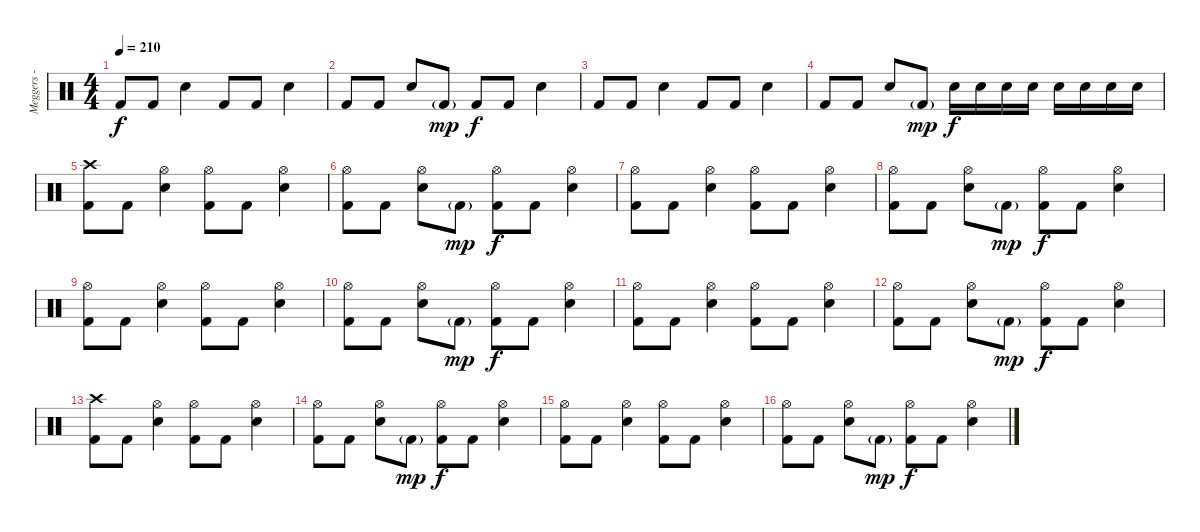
\track ("Meggers - Drums" "Meggers - ") {instrument percussion}
\staff {score}
\articulation defaults
\ts (4 4)
\tempo 210
\clef neutral
\ks c "Kick (hit) 2".8{dy f} "Kick (hit) 2".8 "Electric Snare (hit)".4 "Kick (hit) 2".8 "Kick (hit) 2".8 "Electric Snare (hit)".4
|
"Kick (hit) 2".8 "Kick (hit) 2".8 "Electric Snare (hit)".8 "Kick (hit) 2"{g}.8{dy mp} "Kick (hit) 2".8{dy f} "Kick (hit) 2".8 "Electric Snare (hit)".4 |
"Kick (hit) 2".8 "Kick (hit) 2".8 "Electric Snare (hit)".4 "Kick (hit) 2".8 "Kick (hit) 2".8 "Electric Snare (hit)".4 |
"Kick (hit) 2".8 "Kick (hit) 2".8 "Electric Snare (hit)".8 "Kick (hit) 2"{g}.8{dy mp} "Electric Snare (hit)".16{dy f} "Electric Snare (hit)".16 "Electric Snare (hit)".16 "Electric Snare (hit)".16 "Electric Snare (hit)".16 "Electric Snare (hit)".16 "Electric Snare (hit)".16 "Electric Snare (hit)".16 |
("Crash high (hit)" "Kick (hit) 2").8 "Kick (hit) 2".8 ("Hi-Hat (open)" "Electric Snare (hit)").4 ("Hi-Hat (open)" "Kick (hit) 2").8 "Kick (hit) 2".8 ("Hi-Hat (open)" "Electric Snare (hit)").4 |
("Hi-Hat (open)" "Kick (hit) 2").8 "Kick (hit) 2".8 ("Hi-Hat (open)" "Electric Snare (hit)").8 "Kick (hit) 2"{g}.8{dy mp} ("Hi-Hat (open)" "Kick (hit) 2").8{dy f} "Kick (hit) 2".8 ("Hi-Hat (open)" "Electric Snare (hit)").4 |
("Hi-Hat (open)" "Kick (hit) 2").8 "Kick (hit) 2".8 ("Hi-Hat (open)" "Electric Snare (hit)").4 ("Hi-Hat (open)" "Kick (hit) 2").8 "Kick (hit) 2".8 ("Hi-Hat (open)" "Electric Snare (hit)").4 |
("Hi-Hat (open)" "Kick (hit) 2").8 "Kick (hit) 2".8 ("Hi-Hat (open)" "Electric Snare (hit)").8 "Kick (hit) 2"{g}.8{dy mp} ("Hi-Hat (open)" "Kick (hit) 2").8{dy f} "Kick (hit) 2".8 ("Hi-Hat (open)" "Electric Snare (hit)").4 |
("Hi-Hat (open)" "Kick (hit) 2").8 "Kick (hit) 2".8 ("Hi-Hat (open)" "Electric Snare (hit)").4 ("Hi-Hat (open)" "Kick (hit) 2").8 "Kick (hit) 2".8 ("Hi-Hat (open)" "Electric Snare (hit)").4 |
("Hi-Hat (open)" "Kick (hit) 2").8 "Kick (hit) 2".8 ("Hi-Hat (open)" "Electric Snare (hit)").8 "Kick (hit) 2"{g}.8{dy mp} ("Hi-Hat (open)" "Kick (hit) 2").8{dy f} "Kick (hit) 2".8 ("Hi-Hat (open)" "Electric Snare (hit)").4 |
("Hi-Hat (open)" "Kick (hit) 2").8 "Kick (hit) 2".8 ("Hi-Hat (open)" "Electric Snare (hit)").4 ("Hi-Hat (open)" "Kick (hit) 2").8 "Kick (hit) 2".8 ("Hi-Hat (open)" "Electric Snare (hit)").4 |
("Hi-Hat (open)" "Kick (hit) 2").8 "Kick (hit) 2".8 ("Hi-Hat (open)" "Electric Snare (hit)").8 "Kick (hit) 2"{g}.8{dy mp} ("Hi-Hat (open)" "Kick (hit) 2").8{dy f} "Kick (hit) 2".8 ("Hi-Hat (open)" "Electric Snare (hit)").4 |
("Crash high (hit)" "Kick (hit) 2").8 "Kick (hit) 2".8 ("Hi-Hat (open)" "Electric Snare (hit)").4 ("Hi-Hat (open)" "Kick (hit) 2").8 "Kick (hit) 2".8 ("Hi-Hat (open)" "Electric Snare (hit)").4 |
("Hi-Hat (open)" "Kick (hit) 2").8 "Kick (hit) 2".8 ("Hi-Hat (open)" "Electric Snare (hit)").8 "Kick (hit) 2"{g}.8{dy mp} ("Hi-Hat (open)" "Kick (hit) 2").8{dy f} "Kick (hit) 2".8 ("Hi-Hat (open)" "Electric Snare (hit)").4 |
("Hi-Hat (open)" "Kick (hit) 2").8 "Kick (hit) 2".8 ("Hi-Hat (open)" "Electric Snare (hit)").4 ("Hi-Hat (open)" "Kick (hit) 2").8 "Kick (hit) 2".8 ("Hi-Hat (open)" "Electric Snare (hit)").4 |
("Hi-Hat (open)" "Kick (hit) 2").8 "Kick (hit) 2".8 ("Hi-Hat (open)" "Electric Snare (hit)").8 "Kick (hit) 2"{g}.8{dy mp} ("Hi-Hat (open)" "Kick (hit) 2").8{dy f} "Kick (hit) 2".8 ("Hi-Hat (open)" "Electric Snare (hit)").4
